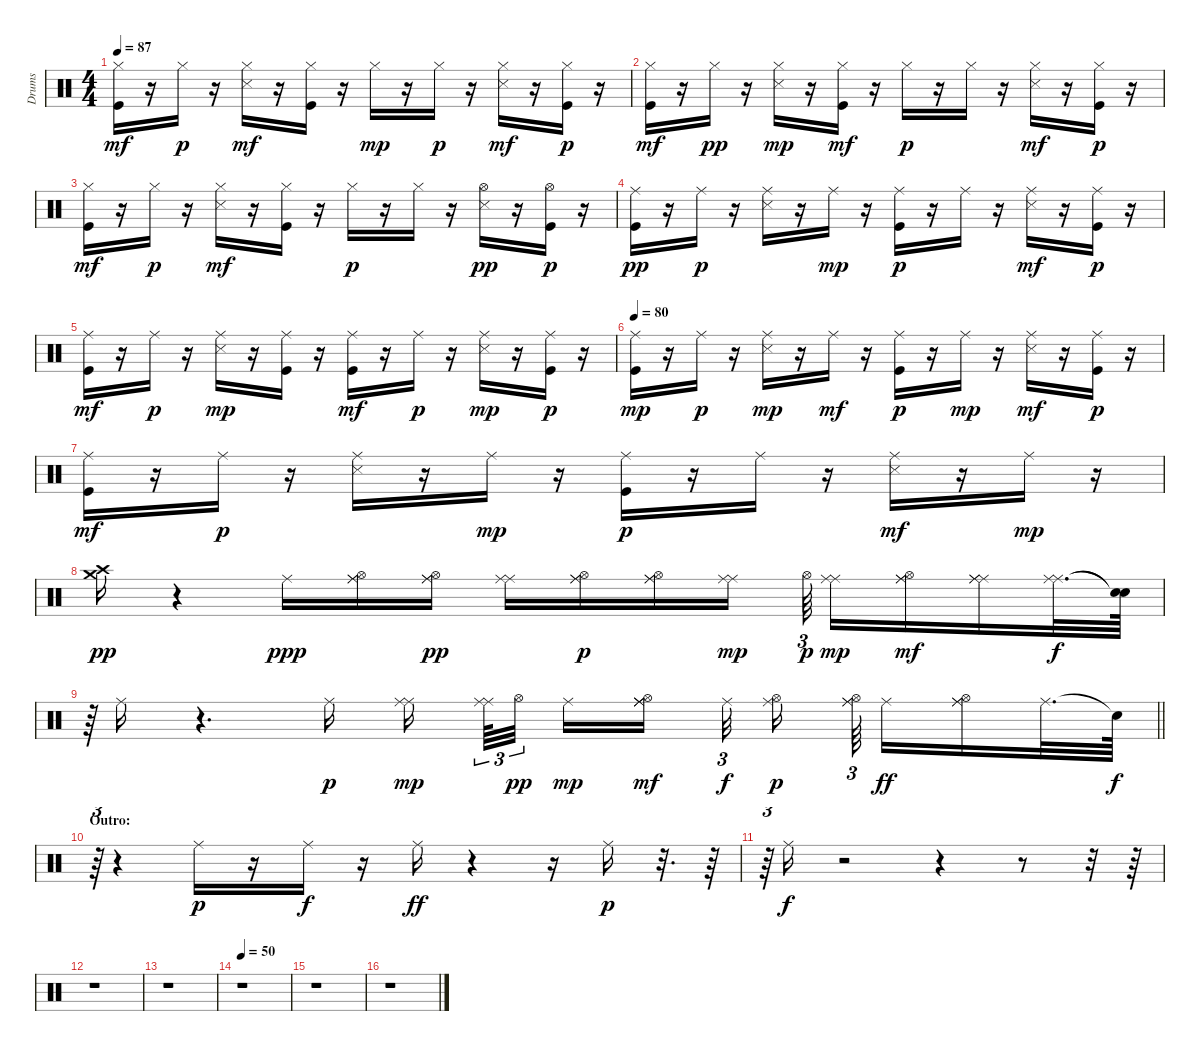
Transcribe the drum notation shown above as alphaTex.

\track ("Drums" "Drums") {instrument percussion}
\staff {score}
\articulation defaults
\ts (4 4)
\tempo 87
\clef neutral
\ks c
("Kick (hit)" "Hi-Hat (closed)").16{dy mf} r.16 "Hi-Hat (closed)".16{dy p} r.16 ("Snare (side stick) 3" "Hi-Hat (closed)").16{dy mf} r.16 ("Kick (hit)" "Hi-Hat (closed)").16 r.16 "Hi-Hat (closed)".16{dy mp} r.16 "Hi-Hat (closed)".16{dy p} r.16 ("Snare (side stick) 3" "Hi-Hat (closed)").16{dy mf} r.16 ("Kick (hit)" "Hi-Hat (closed)").16{dy p} r.16 |
("Kick (hit)" "Hi-Hat (closed)").16{dy mf} r.16 "Hi-Hat (closed)".16{dy pp} r.16 ("Snare (side stick) 3" "Hi-Hat (closed)").16{dy mp} r.16 ("Kick (hit)" "Hi-Hat (closed)").16{dy mf} r.16 "Hi-Hat (closed)".16{dy p} r.16 "Hi-Hat (closed)".16 r.16 ("Snare (side stick) 3" "Hi-Hat (closed)").16{dy mf} r.16 ("Kick (hit)" "Hi-Hat (closed)").16{dy p} r.16 |
("Kick (hit)" "Hi-Hat (closed)").16{dy mf} r.16 "Hi-Hat (closed)".16{dy p} r.16 ("Snare (side stick) 3" "Hi-Hat (closed)").16{dy mf} r.16 ("Kick (hit)" "Hi-Hat (closed)").16 r.16 "Hi-Hat (closed)".16{dy p} r.16 "Hi-Hat (closed)".16 r.16 ("Snare (side stick) 3" "Hi-Hat (open)").16{dy pp} r.16 ("Kick (hit)" "Hi-Hat (open)").16{dy p} r.16 |
("Kick (hit)" "Ride (middle)").16{dy pp} r.16 "Ride (middle)".16{dy p} r.16 ("Snare (side stick) 3" "Ride (middle)").16 r.16 "Ride (middle)".16{dy mp} r.16 ("Kick (hit)" "Ride (middle)").16{dy p} r.16 "Ride (middle)".16 r.16 ("Snare (side stick) 3" "Ride (middle)").16{dy mf} r.16 ("Kick (hit)" "Ride (middle)").16{dy p} r.16 |
("Kick (hit)" "Ride (middle)").16{dy mf} r.16 "Ride (middle)".16{dy p} r.16 ("Snare (side stick) 3" "Ride (middle)").16{dy mp} r.16 ("Kick (hit)" "Ride (middle)").16 r.16 ("Kick (hit)" "Ride (middle)").16{dy mf} r.16 "Ride (middle)".16{dy p} r.16 ("Snare (side stick) 3" "Ride (middle)").16{dy mp} r.16 ("Kick (hit)" "Ride (middle)").16{dy p} r.16 |
\tempo 80
("Kick (hit)" "Ride (middle)").16{dy mp} r.16 "Ride (middle)".16{dy p} r.16 ("Snare (side stick) 3" "Ride (middle)").16{dy mp} r.16 "Ride (middle)".16{dy mf} r.16 ("Kick (hit)" "Ride (middle)").16{dy p} r.16 "Ride (middle)".16{dy mp} r.16 ("Snare (side stick) 3" "Ride (middle)").16{dy mf} r.16 ("Kick (hit)" "Ride (middle)").16{dy p} r.16 |
("Kick (hit)" "Ride (middle)").16{dy mf} r.16 "Ride (middle)".16{dy p} r.16 ("Snare (side stick) 3" "Ride (middle)").16 r.16 "Ride (middle)".16{dy mp} r.16 ("Kick (hit)" "Ride (middle)").16{dy p} r.16 "Ride (middle)".16 r.16 ("Snare (side stick) 3" "Ride (middle)").16{dy mf} r.16 "Ride (middle)".16{dy mp} r.16 |
("Crash medium (hit)" "Crash high (hit)").16{dy pp} r.4 "Ride (middle)".16{dy ppp} ("Ride (middle)" "Hi-Hat (open)" "Ride (middle)").16 ("Ride (middle)" "Hi-Hat (open)" "Ride (middle)").16{dy pp} ("Ride (middle)" "Ride (middle)").16 ("Ride (middle)" "Hi-Hat (open)" "Ride (middle)").16{dy p} ("Ride (middle)" "Hi-Hat (open)" "Ride (middle)").16 ("Ride (middle)" "Ride (middle)").16{dy mp} "Hi-Hat (open)".64{tu (3 2) dy p beam splitsecondary} ("Ride (middle)" "Ride (middle)").16{dy mp} ("Ride (middle)" "Hi-Hat (open)" "Ride (middle)").16{dy mf} ("Ride (middle)" "Ride (middle)" "Ride (middle)").16 ("Ride (middle)" "Ride (middle)").32{d dy f} ("Snare (hit)"{t} "Snare (hit)"{t}).64 |
\barLineRight lightlight
r.64{tu (3 2)} "Ride (middle)".16 r.4{d} "Ride (middle)".16{dy p} ("Ride (middle)" "Ride (middle)").16{dy mp beam splitsecondary} ("Ride (middle)" "Ride (middle)").64{tu (3 2)} "Hi-Hat (open)".32{tu (3 2) dy pp beam splitsecondary} "Ride (middle)".16{dy mp} ("Ride (middle)" "Ride (middle)" "Hi-Hat (open)" "Ride (middle)").16{dy mf beam splitsecondary} "Ride (middle)".32{tu (3 2) dy f} ("Hi-Hat (open)" "Ride (middle)").16{dy p beam splitsecondary} ("Ride (middle)" "Ride (middle)" "Hi-Hat (open)").64{tu (3 2) beam splitsecondary} "Ride (middle)".16{dy ff} ("Ride (middle)" "Hi-Hat (open)" "Ride (middle)").16 "Ride (middle)".32{d} "Snare (hit)"{t}.64{dy f} |
\section ("" "Outro:")
r.64{tu (3 2)} r.4 "Ride (middle)".16{dy p} r.16 "Ride (middle)".16{dy f} r.16 "Ride (middle)".16{dy ff} r.4 r.16 "Ride (middle)".16{dy p} r.32{d} r.64 |
r.64{tu (3 2)} "Ride (middle)".16{dy f} r.2 r.4 r.8 r.32 r.64 |
r.1 |
r.1 |
\tempo 50
r.1 |
r.1 |
r.1
